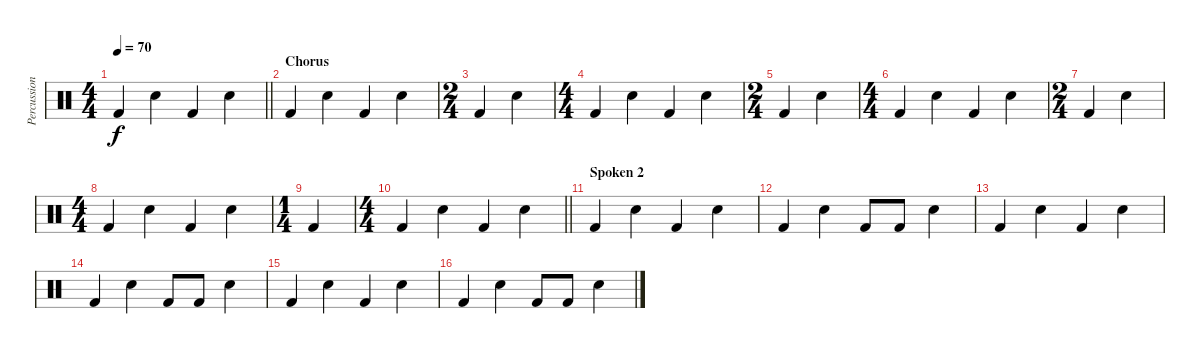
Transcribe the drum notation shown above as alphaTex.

\track ("Percussion" "Percussion") {instrument percussion}
\staff {score}
\articulation defaults
\ts (4 4)
\tempo 70
\clef neutral
\barLineRight lightlight
\ks c "Kick (hit) 2".4{dy f} "Snare (hit) 2".4 "Kick (hit) 2".4 "Snare (hit) 2".4
|
\section ("" "Chorus")
"Kick (hit) 2".4 "Snare (hit) 2".4 "Kick (hit) 2".4 "Snare (hit) 2".4 |
\ts (2 4)
"Kick (hit) 2".4 "Snare (hit) 2".4 |
\ts (4 4)
"Kick (hit) 2".4 "Snare (hit) 2".4 "Kick (hit) 2".4 "Snare (hit) 2".4 |
\ts (2 4)
"Kick (hit) 2".4 "Snare (hit) 2".4 |
\ts (4 4)
"Kick (hit) 2".4 "Snare (hit) 2".4 "Kick (hit) 2".4 "Snare (hit) 2".4 |
\ts (2 4)
"Kick (hit) 2".4 "Snare (hit) 2".4 |
\ts (4 4)
"Kick (hit) 2".4 "Snare (hit) 2".4 "Kick (hit) 2".4 "Snare (hit) 2".4 |
\ts (1 4)
"Kick (hit) 2".4 |
\ts (4 4)
\barLineRight lightlight "Kick (hit) 2".4 "Snare (hit) 2".4 "Kick (hit) 2".4 "Snare (hit) 2".4
|
\section ("" "Spoken 2")
"Kick (hit) 2".4 "Snare (hit) 2".4 "Kick (hit) 2".4 "Snare (hit) 2".4 |
"Kick (hit) 2".4 "Snare (hit) 2".4 "Kick (hit) 2".8 "Kick (hit) 2".8 "Snare (hit) 2".4 |
"Kick (hit) 2".4 "Snare (hit) 2".4 "Kick (hit) 2".4 "Snare (hit) 2".4 |
"Kick (hit) 2".4 "Snare (hit) 2".4 "Kick (hit) 2".8 "Kick (hit) 2".8 "Snare (hit) 2".4 |
"Kick (hit) 2".4 "Snare (hit) 2".4 "Kick (hit) 2".4 "Snare (hit) 2".4 |
"Kick (hit) 2".4 "Snare (hit) 2".4 "Kick (hit) 2".8 "Kick (hit) 2".8 "Snare (hit) 2".4
